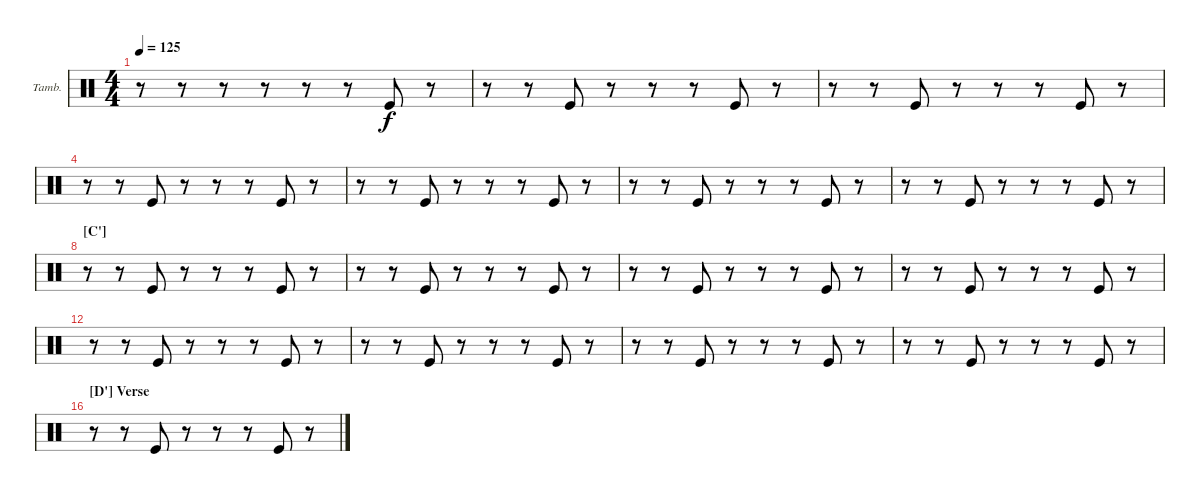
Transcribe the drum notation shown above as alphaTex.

\bracketExtendMode nobrackets
\firstSystemTrackNameOrientation horizontal
\otherSystemsTrackNameOrientation horizontal
\defaultBarNumberDisplay FirstOfSystem
\track ("Tambourine" "Tamb.") {instrument percussion}
\staff {score}
\articulation defaults
\ts (4 4)
\tempo 125
\clef neutral
\ks c
r.8{dy f} r.8 r.8 r.8 r.8 r.8 "Kick (hit)".8 r.8 |
r.8 r.8 "Kick (hit)".8 r.8 r.8 r.8 "Kick (hit)".8 r.8 |
r.8 r.8 "Kick (hit)".8 r.8 r.8 r.8 "Kick (hit)".8 r.8 |
r.8 r.8 "Kick (hit)".8 r.8 r.8 r.8 "Kick (hit)".8 r.8 |
r.8 r.8 "Kick (hit)".8 r.8 r.8 r.8 "Kick (hit)".8 r.8 |
r.8 r.8 "Kick (hit)".8 r.8 r.8 r.8 "Kick (hit)".8 r.8 |
r.8 r.8 "Kick (hit)".8 r.8 r.8 r.8 "Kick (hit)".8 r.8 |
\section ("C'" "")
r.8 r.8 "Kick (hit)".8 r.8 r.8 r.8 "Kick (hit)".8 r.8 |
r.8 r.8 "Kick (hit)".8 r.8 r.8 r.8 "Kick (hit)".8 r.8 |
r.8 r.8 "Kick (hit)".8 r.8 r.8 r.8 "Kick (hit)".8 r.8 |
r.8 r.8 "Kick (hit)".8 r.8 r.8 r.8 "Kick (hit)".8 r.8 |
r.8 r.8 "Kick (hit)".8 r.8 r.8 r.8 "Kick (hit)".8 r.8 |
r.8 r.8 "Kick (hit)".8 r.8 r.8 r.8 "Kick (hit)".8 r.8 |
r.8 r.8 "Kick (hit)".8 r.8 r.8 r.8 "Kick (hit)".8 r.8 |
r.8 r.8 "Kick (hit)".8 r.8 r.8 r.8 "Kick (hit)".8 r.8 |
\section ("D'" "Verse")
r.8 r.8 "Kick (hit)".8 r.8 r.8 r.8 "Kick (hit)".8 r.8
